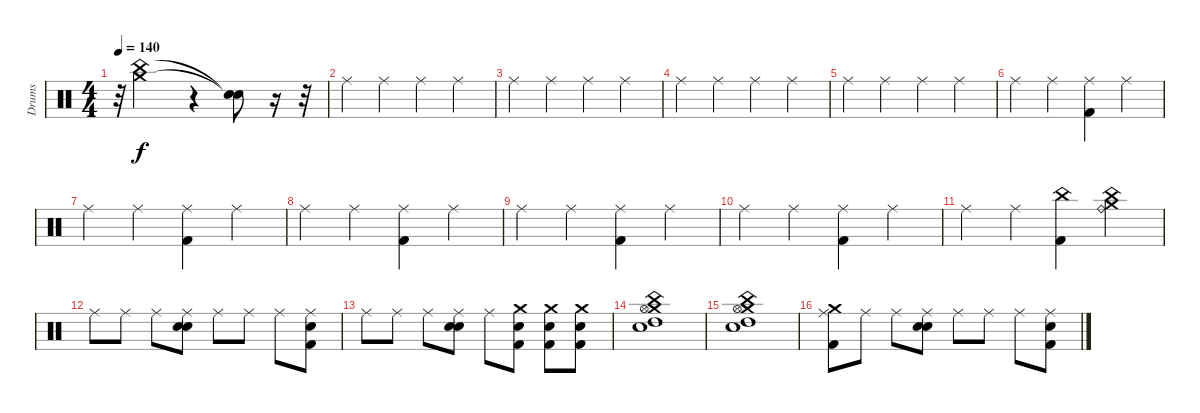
\track ("Drums" "Drums") {instrument percussion}
\staff {score}
\articulation defaults
\ts (4 4)
\tempo 140
\clef neutral
\ks c
r.32{dy f} ("Crash medium (hit)" "China (hit)").2 r.4 ("Snare (hit)"{t} "Snare (hit)"{t}).8 r.16 r.32 |
"Ride (middle)".4 "Ride (middle)".4 "Ride (middle)".4 "Ride (middle)".4 |
"Ride (middle)".4 "Ride (middle)".4 "Ride (middle)".4 "Ride (middle)".4 |
"Ride (middle)".4 "Ride (middle)".4 "Ride (middle)".4 "Ride (middle)".4 |
"Ride (middle)".4 "Ride (middle)".4 "Ride (middle)".4 "Ride (middle)".4 |
"Ride (middle)".4 "Ride (middle)".4 ("Ride (middle)" "Kick (hit) 2").4 "Ride (middle)".4 |
"Ride (middle)".4 "Ride (middle)".4 ("Ride (middle)" "Kick (hit) 2").4 "Ride (middle)".4 |
"Ride (middle)".4 "Ride (middle)".4 ("Ride (middle)" "Kick (hit) 2").4 "Ride (middle)".4 |
"Ride (middle)".4 "Ride (middle)".4 ("Ride (middle)" "Kick (hit) 2").4 "Ride (middle)".4 |
"Ride (middle)".4 "Ride (middle)".4 ("Ride (middle)" "Kick (hit) 2").4 "Ride (middle)".4 |
"Ride (middle)".4 "Ride (middle)".4 ("China (hit)" "Kick (hit) 2").4 ("Ride (bell)" "Crash medium (hit)" "China (hit)").4 |
"Ride (middle)".8 "Ride (middle)".8 "Ride (middle)".8 ("Ride (middle)" "Snare (hit) 2" "Electric Snare (hit)").8 "Ride (middle)".8 "Ride (middle)".8 "Ride (middle)".8 ("Ride (middle)" "Kick (hit) 2" "Electric Snare (hit)").8 |
"Ride (middle)".8 "Ride (middle)".8 "Ride (middle)".8 ("Ride (middle)" "Snare (hit) 2" "Electric Snare (hit)").8 "Ride (middle)".8 ("Snare (hit) 2" "Kick (hit) 2" "Crash medium (hit)").8 ("Snare (hit) 2" "Kick (hit) 2" "Crash medium (hit)").8 ("Snare (hit) 2" "Kick (hit) 2" "Crash medium (hit)").8 |
("Crash medium (hit)" "Hi-Hat (open)" "High Tom (hit)" "China (hit)" "Snare (hit) 2").1 |
("Crash medium (hit)" "Hi-Hat (open)" "High Tom (hit)" "China (hit)" "Snare (hit) 2").1 |
("Ride (middle)" "Kick (hit) 2" "Crash medium (hit)").8 "Ride (middle)".8 "Ride (middle)".8 ("Ride (middle)" "Snare (hit) 2" "Electric Snare (hit)").8 "Ride (middle)".8 "Ride (middle)".8 "Ride (middle)".8 ("Ride (middle)" "Kick (hit) 2" "Electric Snare (hit)").8
